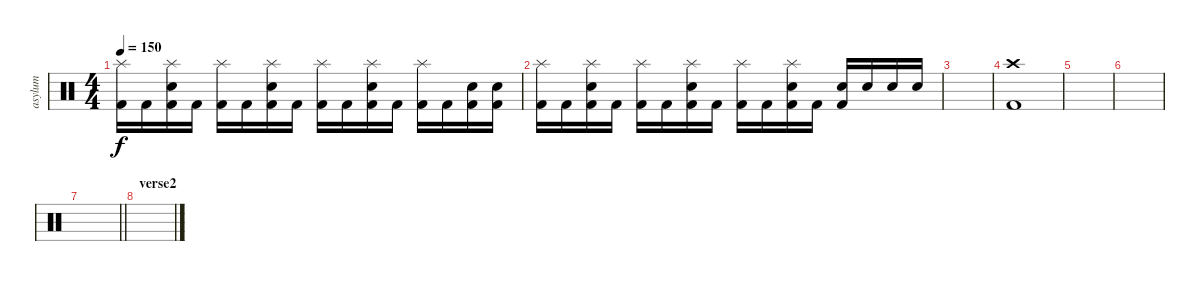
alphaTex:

\track ("asylum" "asylum") {instrument percussion}
\staff {score}
\articulation defaults
\ts (4 4)
\tempo 150
\clef neutral
\ks c
("Splash (hit)" "Kick (hit) 2").16{dy f} "Kick (hit) 2".16 ("Splash (hit)" "Electric Snare (hit)" "Kick (hit) 2").16 "Kick (hit) 2".16 ("Splash (hit)" "Kick (hit) 2").16 "Kick (hit) 2".16 ("Splash (hit)" "Electric Snare (hit)" "Kick (hit) 2").16 "Kick (hit) 2".16 ("Splash (hit)" "Kick (hit) 2").16 "Kick (hit) 2".16 ("Splash (hit)" "Electric Snare (hit)" "Kick (hit) 2").16 "Kick (hit) 2".16 ("Splash (hit)" "Kick (hit) 2").16 "Kick (hit) 2".16 ("Electric Snare (hit)" "Kick (hit) 2").16 ("Electric Snare (hit)" "Kick (hit) 2").16 |
("Splash (hit)" "Kick (hit) 2").16 "Kick (hit) 2".16 ("Splash (hit)" "Electric Snare (hit)" "Kick (hit) 2").16 "Kick (hit) 2".16 ("Splash (hit)" "Kick (hit) 2").16 "Kick (hit) 2".16 ("Splash (hit)" "Electric Snare (hit)" "Kick (hit) 2").16 "Kick (hit) 2".16 ("Splash (hit)" "Kick (hit) 2").16 "Kick (hit) 2".16 ("Splash (hit)" "Electric Snare (hit)" "Kick (hit) 2").16 "Kick (hit) 2".16 ("Electric Snare (hit)" "Kick (hit) 2").16 "Electric Snare (hit)".16 "Electric Snare (hit)".16 "Electric Snare (hit)".16 |
|
("Crash high (hit)" "Kick (hit) 2").1 |
|
|
\barLineRight lightlight
|
\section ("" "verse2")
